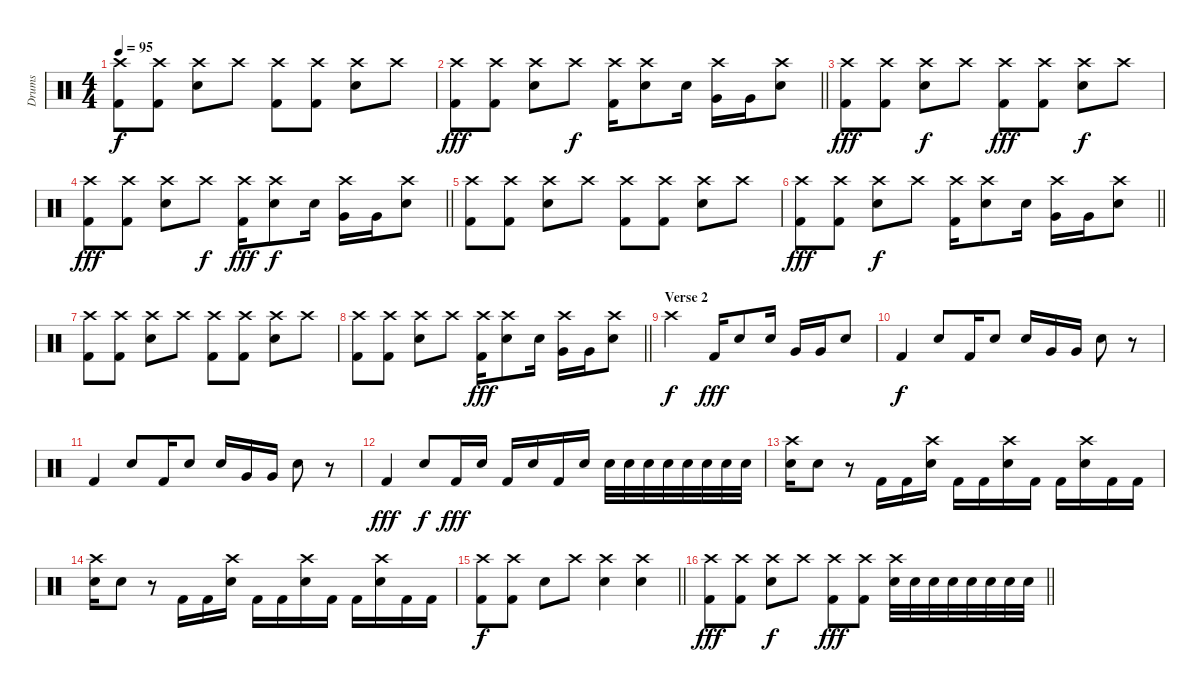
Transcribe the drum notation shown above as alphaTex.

\track ("Drums" "Drums") {instrument percussion}
\staff {score}
\articulation defaults
\ts (4 4)
\tempo 95
\clef neutral
\ks c
("Crash high (hit)" "Kick (hit) 2").8{dy f} ("Crash high (hit)" "Kick (hit) 2").8 ("Crash high (hit)" "Snare (hit) 2").8 "Crash high (hit)".8 ("Crash high (hit)" "Kick (hit) 2").8 ("Crash high (hit)" "Kick (hit) 2").8 ("Crash high (hit)" "Snare (hit) 2").8 "Crash high (hit)".8 |
\barLineRight lightlight
("Crash high (hit)" "Kick (hit) 2").8{dy fff} ("Crash high (hit)" "Kick (hit) 2").8 ("Crash high (hit)" "Snare (hit) 2").8 "Crash high (hit)".8{dy f} ("Kick (hit) 2" "Crash high (hit)").16 ("Snare (hit) 2" "Crash high (hit)").8 "Snare (hit) 2".16 ("Very Low Tom (hit)" "Crash high (hit)").16 "Very Low Tom (hit)".16 ("Snare (hit) 2" "Crash high (hit)").8 |
("Crash high (hit)" "Kick (hit) 2").8{dy fff} ("Crash high (hit)" "Kick (hit) 2").8 ("Crash high (hit)" "Snare (hit) 2").8{dy f} "Crash high (hit)".8 ("Crash high (hit)" "Kick (hit) 2").8{dy fff} ("Crash high (hit)" "Kick (hit) 2").8 ("Crash high (hit)" "Snare (hit) 2").8{dy f} "Crash high (hit)".8 |
\barLineRight lightlight
("Crash high (hit)" "Kick (hit) 2").8{dy fff} ("Crash high (hit)" "Kick (hit) 2").8 ("Crash high (hit)" "Snare (hit) 2").8 "Crash high (hit)".8{dy f} ("Kick (hit) 2" "Crash high (hit)").16{dy fff} ("Snare (hit) 2" "Crash high (hit)").8{dy f} "Snare (hit) 2".16 ("Very Low Tom (hit)" "Crash high (hit)").16 "Very Low Tom (hit)".16 ("Snare (hit) 2" "Crash high (hit)").8 |
("Crash high (hit)" "Kick (hit) 2").8 ("Crash high (hit)" "Kick (hit) 2").8 ("Crash high (hit)" "Snare (hit) 2").8 "Crash high (hit)".8 ("Crash high (hit)" "Kick (hit) 2").8 ("Crash high (hit)" "Kick (hit) 2").8 ("Crash high (hit)" "Snare (hit) 2").8 "Crash high (hit)".8 |
\barLineRight lightlight
("Crash high (hit)" "Kick (hit) 2").8{dy fff} ("Crash high (hit)" "Kick (hit) 2").8 ("Crash high (hit)" "Snare (hit) 2").8{dy f} "Crash high (hit)".8 ("Kick (hit) 2" "Crash high (hit)").16 ("Snare (hit) 2" "Crash high (hit)").8 "Snare (hit) 2".16 ("Very Low Tom (hit)" "Crash high (hit)").16 "Very Low Tom (hit)".16 ("Snare (hit) 2" "Crash high (hit)").8 |
("Crash high (hit)" "Kick (hit) 2").8 ("Crash high (hit)" "Kick (hit) 2").8 ("Crash high (hit)" "Snare (hit) 2").8 "Crash high (hit)".8 ("Crash high (hit)" "Kick (hit) 2").8 ("Crash high (hit)" "Kick (hit) 2").8 ("Crash high (hit)" "Snare (hit) 2").8 "Crash high (hit)".8 |
\barLineRight lightlight
("Crash high (hit)" "Kick (hit) 2").8 ("Crash high (hit)" "Kick (hit) 2").8 ("Crash high (hit)" "Snare (hit) 2").8 "Crash high (hit)".8 ("Kick (hit) 2" "Crash high (hit)").16{dy fff} ("Snare (hit) 2" "Crash high (hit)").8 "Snare (hit) 2".16 ("Very Low Tom (hit)" "Crash high (hit)").16 "Very Low Tom (hit)".16 ("Snare (hit) 2" "Crash high (hit)").8 |
\section ("" "Verse 2")
"Crash high (hit)".2{dy f} "Kick (hit) 2".16{dy fff} "Snare (hit) 2".8 "Snare (hit) 2".16 "Very Low Tom (hit)".16 "Very Low Tom (hit)".16 "Snare (hit) 2".8 |
"Kick (hit) 2".4{dy f} "Snare (hit) 2".8 "Kick (hit) 2".16 "Snare (hit) 2".8 "Snare (hit) 2".16 "Very Low Tom (hit)".16 "Very Low Tom (hit)".16 "Snare (hit) 2".8 r.8 |
"Kick (hit) 2".4 "Snare (hit) 2".8 "Kick (hit) 2".16 "Snare (hit) 2".8 "Snare (hit) 2".16 "Very Low Tom (hit)".16 "Very Low Tom (hit)".16 "Snare (hit) 2".8 r.8 |
"Kick (hit) 2".4{dy fff} "Snare (hit) 2".8{dy f} "Kick (hit) 2".16{dy fff} "Snare (hit) 2".16 "Kick (hit) 2".16 "Snare (hit) 2".16 "Kick (hit) 2".16 "Snare (hit) 2".16 "Snare (hit) 2".32 "Snare (hit) 2".32 "Snare (hit) 2".32 "Snare (hit) 2".32 "Snare (hit) 2".32 "Snare (hit) 2".32 "Snare (hit) 2".32 "Snare (hit) 2".32 |
("Crash high (hit)" "Snare (hit) 2").16 "Snare (hit) 2".8 r.8 "Kick (hit) 2".16 "Kick (hit) 2".16 ("Snare (hit) 2" "Crash high (hit)").16 "Kick (hit) 2".16 "Kick (hit) 2".16 ("Snare (hit) 2" "Crash high (hit)").16 "Kick (hit) 2".16 "Kick (hit) 2".16 ("Snare (hit) 2" "Crash high (hit)").16 "Kick (hit) 2".16 "Kick (hit) 2".16 |
("Crash high (hit)" "Snare (hit) 2").16 "Snare (hit) 2".8 r.8 "Kick (hit) 2".16 "Kick (hit) 2".16 ("Snare (hit) 2" "Crash high (hit)").16 "Kick (hit) 2".16 "Kick (hit) 2".16 ("Snare (hit) 2" "Crash high (hit)").16 "Kick (hit) 2".16 "Kick (hit) 2".16 ("Snare (hit) 2" "Crash high (hit)").16 "Kick (hit) 2".16 "Kick (hit) 2".16 |
\barLineRight lightlight
("Kick (hit) 2" "Crash high (hit)").8{dy f} ("Kick (hit) 2" "Crash high (hit)").8 "Snare (hit) 2".8 "Crash high (hit)".8 ("Snare (hit) 2" "Crash high (hit)").4 ("Snare (hit) 2" "Crash high (hit)").4 |
\barLineRight lightlight
("Crash high (hit)" "Kick (hit) 2").8{dy fff} ("Crash high (hit)" "Kick (hit) 2").8 ("Crash high (hit)" "Snare (hit) 2").8{dy f} "Crash high (hit)".8 ("Crash high (hit)" "Kick (hit) 2").8{dy fff} ("Crash high (hit)" "Kick (hit) 2").8 ("Snare (hit) 2" "Crash high (hit)").32 "Snare (hit) 2".32 "Snare (hit) 2".32 "Snare (hit) 2".32 "Snare (hit) 2".32 "Snare (hit) 2".32 "Snare (hit) 2".32 "Snare (hit) 2".32
